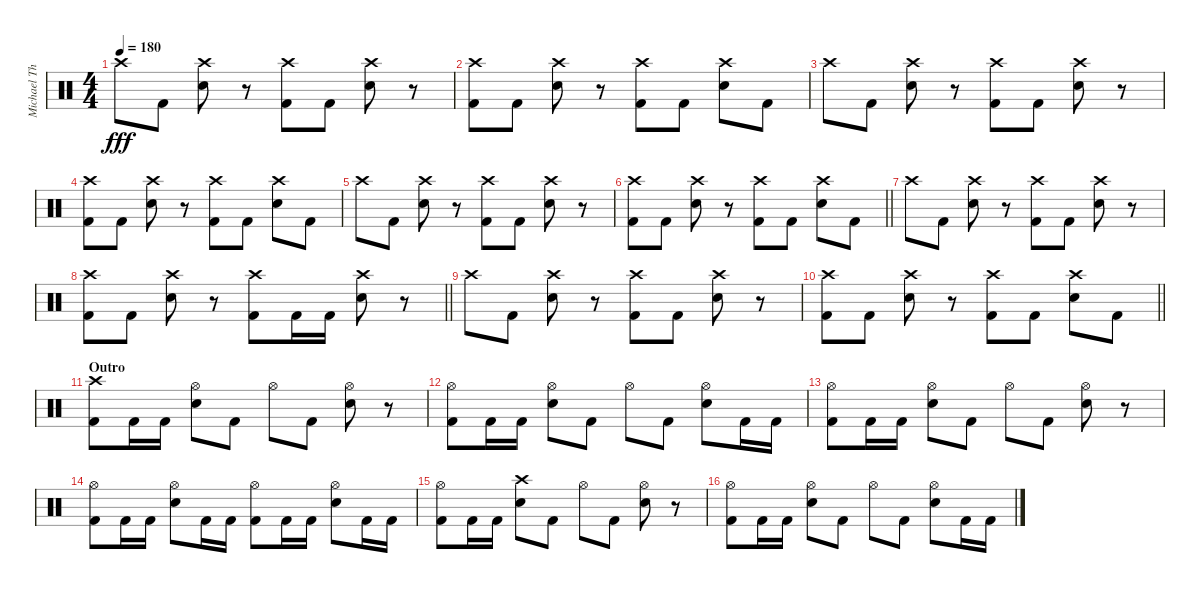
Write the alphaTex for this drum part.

\track ("Michael Thomas" "Michael Th") {instrument percussion}
\staff {score}
\articulation defaults
\ts (4 4)
\tempo 180
\clef neutral
\ks c "Crash high (hit)".8{dy fff} "Kick (hit) 2".8
("Crash high (hit)" "Electric Snare (hit)").8 r.8 ("Crash high (hit)" "Kick (hit) 2").8 "Kick (hit) 2".8 ("Crash high (hit)" "Electric Snare (hit)").8 r.8 |
("Crash high (hit)" "Kick (hit) 2").8 "Kick (hit) 2".8 ("Crash high (hit)" "Electric Snare (hit)").8 r.8 ("Crash high (hit)" "Kick (hit) 2").8 "Kick (hit) 2".8 ("Crash high (hit)" "Electric Snare (hit)").8 "Kick (hit) 2".8 |
"Crash high (hit)".8 "Kick (hit) 2".8 ("Crash high (hit)" "Electric Snare (hit)").8 r.8 ("Crash high (hit)" "Kick (hit) 2").8 "Kick (hit) 2".8 ("Crash high (hit)" "Electric Snare (hit)").8 r.8 |
("Crash high (hit)" "Kick (hit) 2").8 "Kick (hit) 2".8 ("Crash high (hit)" "Electric Snare (hit)").8 r.8 ("Crash high (hit)" "Kick (hit) 2").8 "Kick (hit) 2".8 ("Crash high (hit)" "Electric Snare (hit)").8 "Kick (hit) 2".8 |
"Crash high (hit)".8 "Kick (hit) 2".8 ("Crash high (hit)" "Electric Snare (hit)").8 r.8 ("Crash high (hit)" "Kick (hit) 2").8 "Kick (hit) 2".8 ("Crash high (hit)" "Electric Snare (hit)").8 r.8 |
\barLineRight lightlight
("Crash high (hit)" "Kick (hit) 2").8 "Kick (hit) 2".8 ("Crash high (hit)" "Electric Snare (hit)").8 r.8 ("Crash high (hit)" "Kick (hit) 2").8 "Kick (hit) 2".8 ("Crash high (hit)" "Electric Snare (hit)").8 "Kick (hit) 2".8 |
"Crash high (hit)".8 "Kick (hit) 2".8 ("Crash high (hit)" "Electric Snare (hit)").8 r.8 ("Crash high (hit)" "Kick (hit) 2").8 "Kick (hit) 2".8 ("Crash high (hit)" "Electric Snare (hit)").8 r.8 |
\barLineRight lightlight
("Crash high (hit)" "Kick (hit) 2").8 "Kick (hit) 2".8 ("Crash high (hit)" "Electric Snare (hit)").8 r.8 ("Crash high (hit)" "Kick (hit) 2").8 "Kick (hit) 2".16 "Kick (hit) 2".16 ("Crash high (hit)" "Electric Snare (hit)").8 r.8 |
"Crash high (hit)".8 "Kick (hit) 2".8 ("Crash high (hit)" "Electric Snare (hit)").8 r.8 ("Crash high (hit)" "Kick (hit) 2").8 "Kick (hit) 2".8 ("Crash high (hit)" "Electric Snare (hit)").8 r.8 |
\barLineRight lightlight
("Crash high (hit)" "Kick (hit) 2").8 "Kick (hit) 2".8 ("Crash high (hit)" "Electric Snare (hit)").8 r.8 ("Crash high (hit)" "Kick (hit) 2").8 "Kick (hit) 2".8 ("Crash high (hit)" "Electric Snare (hit)").8 "Kick (hit) 2".8 |
\section ("" "Outro")
("Crash high (hit)" "Kick (hit) 2").8 "Kick (hit) 2".16 "Kick (hit) 2".16 ("Hi-Hat (open)" "Electric Snare (hit)").8 "Kick (hit) 2".8 "Hi-Hat (open)".8 "Kick (hit) 2".8 ("Hi-Hat (open)" "Electric Snare (hit)").8 r.8 |
("Hi-Hat (open)" "Kick (hit) 2").8 "Kick (hit) 2".16 "Kick (hit) 2".16 ("Hi-Hat (open)" "Electric Snare (hit)").8 "Kick (hit) 2".8 "Hi-Hat (open)".8 "Kick (hit) 2".8 ("Hi-Hat (open)" "Electric Snare (hit)").8 "Kick (hit) 2".16 "Kick (hit) 2".16 |
("Hi-Hat (open)" "Kick (hit) 2").8 "Kick (hit) 2".16 "Kick (hit) 2".16 ("Hi-Hat (open)" "Electric Snare (hit)").8 "Kick (hit) 2".8 "Hi-Hat (open)".8 "Kick (hit) 2".8 ("Hi-Hat (open)" "Electric Snare (hit)").8 r.8 |
("Hi-Hat (open)" "Kick (hit) 2").8 "Kick (hit) 2".16 "Kick (hit) 2".16 ("Hi-Hat (open)" "Electric Snare (hit)").8 "Kick (hit) 2".16 "Kick (hit) 2".16 ("Hi-Hat (open)" "Kick (hit) 2").8 "Kick (hit) 2".16 "Kick (hit) 2".16 ("Hi-Hat (open)" "Electric Snare (hit)").8 "Kick (hit) 2".16 "Kick (hit) 2".16 |
("Hi-Hat (open)" "Kick (hit) 2").8 "Kick (hit) 2".16 "Kick (hit) 2".16 ("Crash high (hit)" "Electric Snare (hit)").8 "Kick (hit) 2".8 "Hi-Hat (open)".8 "Kick (hit) 2".8 ("Hi-Hat (open)" "Electric Snare (hit)").8 r.8 |
("Hi-Hat (open)" "Kick (hit) 2").8 "Kick (hit) 2".16 "Kick (hit) 2".16 ("Hi-Hat (open)" "Electric Snare (hit)").8 "Kick (hit) 2".8 "Hi-Hat (open)".8 "Kick (hit) 2".8 ("Hi-Hat (open)" "Electric Snare (hit)").8 "Kick (hit) 2".16 "Kick (hit) 2".16
